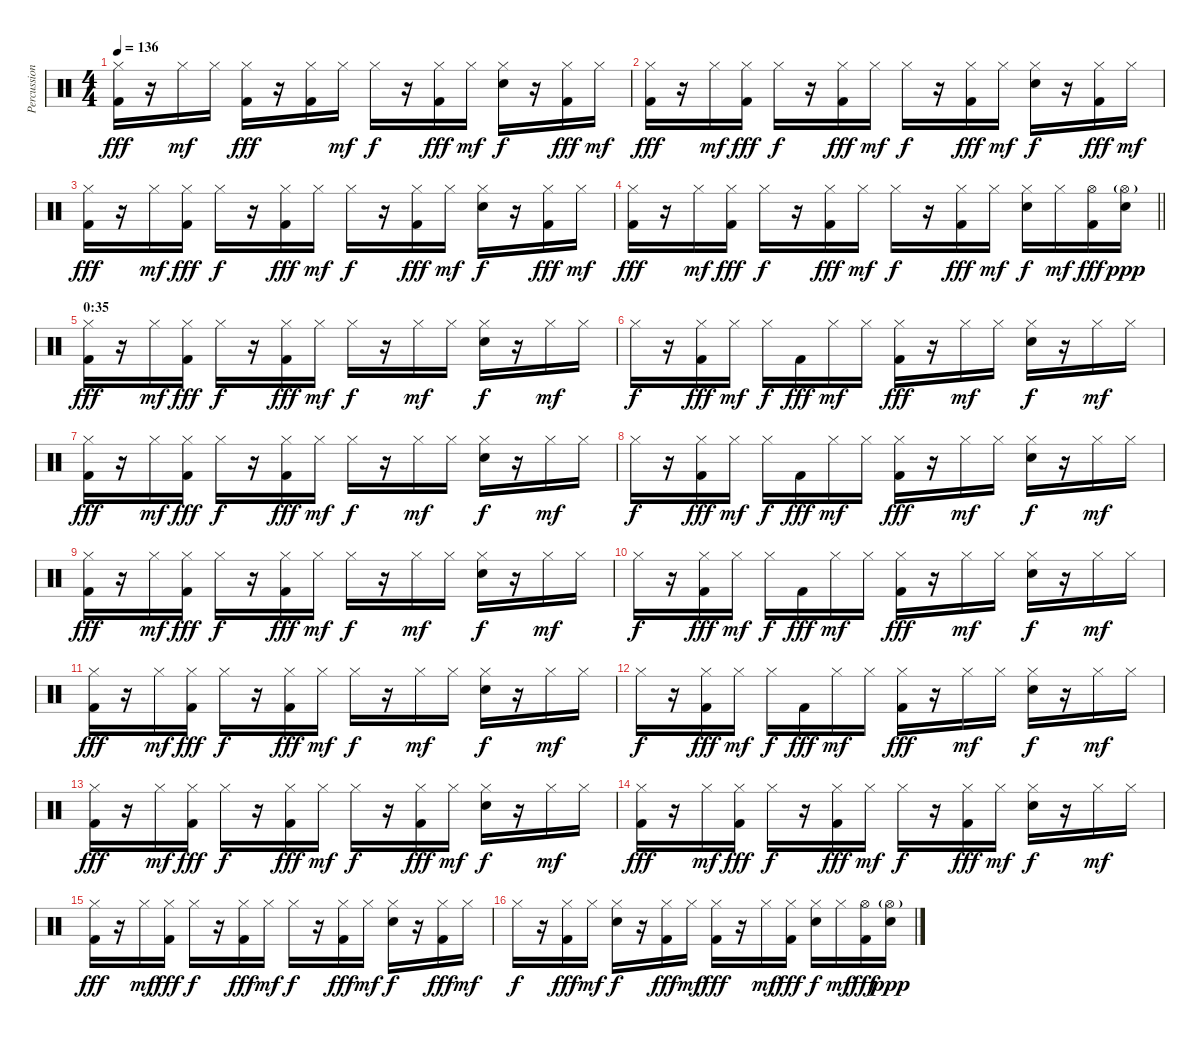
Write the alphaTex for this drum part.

\track ("Percussion" "Percussion") {instrument percussion}
\staff {score}
\articulation defaults
\ts (4 4)
\tempo 136
\clef neutral
\ks c
("Hi-Hat (closed)" "Kick (hit) 2").16{dy fff} r.16 "Hi-Hat (closed)".16{dy mf} "Hi-Hat (closed)".16 ("Hi-Hat (closed)" "Kick (hit) 2").16{dy fff} r.16 ("Hi-Hat (closed)" "Kick (hit) 2").16 "Hi-Hat (closed)".16{dy mf} "Hi-Hat (closed)".16{dy f} r.16 ("Hi-Hat (closed)" "Kick (hit) 2").16{dy fff} "Hi-Hat (closed)".16{dy mf} ("Hi-Hat (closed)" "Electric Snare (hit)").16{dy f} r.16 ("Hi-Hat (closed)" "Kick (hit) 2").16{dy fff} "Hi-Hat (closed)".16{dy mf} |
("Hi-Hat (closed)" "Kick (hit) 2").16{dy fff} r.16 "Hi-Hat (closed)".16{dy mf} ("Hi-Hat (closed)" "Kick (hit) 2").16{dy fff} "Hi-Hat (closed)".16{dy f} r.16 ("Hi-Hat (closed)" "Kick (hit) 2").16{dy fff} "Hi-Hat (closed)".16{dy mf} "Hi-Hat (closed)".16{dy f} r.16 ("Hi-Hat (closed)" "Kick (hit) 2").16{dy fff} "Hi-Hat (closed)".16{dy mf} ("Hi-Hat (closed)" "Electric Snare (hit)").16{dy f} r.16 ("Hi-Hat (closed)" "Kick (hit) 2").16{dy fff} "Hi-Hat (closed)".16{dy mf} |
("Hi-Hat (closed)" "Kick (hit) 2").16{dy fff} r.16 "Hi-Hat (closed)".16{dy mf} ("Hi-Hat (closed)" "Kick (hit) 2").16{dy fff} "Hi-Hat (closed)".16{dy f} r.16 ("Hi-Hat (closed)" "Kick (hit) 2").16{dy fff} "Hi-Hat (closed)".16{dy mf} "Hi-Hat (closed)".16{dy f} r.16 ("Hi-Hat (closed)" "Kick (hit) 2").16{dy fff} "Hi-Hat (closed)".16{dy mf} ("Hi-Hat (closed)" "Electric Snare (hit)").16{dy f} r.16 ("Hi-Hat (closed)" "Kick (hit) 2").16{dy fff} "Hi-Hat (closed)".16{dy mf} |
\barLineRight lightlight
("Hi-Hat (closed)" "Kick (hit) 2").16{dy fff} r.16 "Hi-Hat (closed)".16{dy mf} ("Hi-Hat (closed)" "Kick (hit) 2").16{dy fff} "Hi-Hat (closed)".16{dy f} r.16 ("Hi-Hat (closed)" "Kick (hit) 2").16{dy fff} "Hi-Hat (closed)".16{dy mf} "Hi-Hat (closed)".16{dy f} r.16 ("Hi-Hat (closed)" "Kick (hit) 2").16{dy fff} "Hi-Hat (closed)".16{dy mf} ("Hi-Hat (closed)" "Electric Snare (hit)").16{dy f} "Hi-Hat (closed)".16{dy mf} ("Hi-Hat (open)" "Kick (hit) 2").16{dy fff} ("Hi-Hat (open)"{g} "Electric Snare (hit)").16{dy ppp} |
\section ("" "0:35")
("Hi-Hat (closed)" "Kick (hit) 2").16{dy fff} r.16 "Hi-Hat (closed)".16{dy mf} ("Hi-Hat (closed)" "Kick (hit) 2").16{dy fff} "Hi-Hat (closed)".16{dy f} r.16 ("Hi-Hat (closed)" "Kick (hit) 2").16{dy fff} "Hi-Hat (closed)".16{dy mf} "Hi-Hat (closed)".16{dy f} r.16 "Hi-Hat (closed)".16{dy mf} "Hi-Hat (closed)".16 ("Hi-Hat (closed)" "Electric Snare (hit)").16{dy f} r.16 "Hi-Hat (closed)".16{dy mf} "Hi-Hat (closed)".16 |
"Hi-Hat (closed)".16{dy f} r.16 ("Hi-Hat (closed)" "Kick (hit) 2").16{dy fff} "Hi-Hat (closed)".16{dy mf} "Hi-Hat (closed)".16{dy f} "Kick (hit) 2".16{dy fff} "Hi-Hat (closed)".16{dy mf} "Hi-Hat (closed)".16 ("Hi-Hat (closed)" "Kick (hit) 2").16{dy fff} r.16 "Hi-Hat (closed)".16{dy mf} "Hi-Hat (closed)".16 ("Hi-Hat (closed)" "Electric Snare (hit)").16{dy f} r.16 "Hi-Hat (closed)".16{dy mf} "Hi-Hat (closed)".16 |
("Hi-Hat (closed)" "Kick (hit) 2").16{dy fff} r.16 "Hi-Hat (closed)".16{dy mf} ("Hi-Hat (closed)" "Kick (hit) 2").16{dy fff} "Hi-Hat (closed)".16{dy f} r.16 ("Hi-Hat (closed)" "Kick (hit) 2").16{dy fff} "Hi-Hat (closed)".16{dy mf} "Hi-Hat (closed)".16{dy f} r.16 "Hi-Hat (closed)".16{dy mf} "Hi-Hat (closed)".16 ("Hi-Hat (closed)" "Electric Snare (hit)").16{dy f} r.16 "Hi-Hat (closed)".16{dy mf} "Hi-Hat (closed)".16 |
"Hi-Hat (closed)".16{dy f} r.16 ("Hi-Hat (closed)" "Kick (hit) 2").16{dy fff} "Hi-Hat (closed)".16{dy mf} "Hi-Hat (closed)".16{dy f} "Kick (hit) 2".16{dy fff} "Hi-Hat (closed)".16{dy mf} "Hi-Hat (closed)".16 ("Hi-Hat (closed)" "Kick (hit) 2").16{dy fff} r.16 "Hi-Hat (closed)".16{dy mf} "Hi-Hat (closed)".16 ("Hi-Hat (closed)" "Electric Snare (hit)").16{dy f} r.16 "Hi-Hat (closed)".16{dy mf} "Hi-Hat (closed)".16 |
("Hi-Hat (closed)" "Kick (hit) 2").16{dy fff} r.16 "Hi-Hat (closed)".16{dy mf} ("Hi-Hat (closed)" "Kick (hit) 2").16{dy fff} "Hi-Hat (closed)".16{dy f} r.16 ("Hi-Hat (closed)" "Kick (hit) 2").16{dy fff} "Hi-Hat (closed)".16{dy mf} "Hi-Hat (closed)".16{dy f} r.16 "Hi-Hat (closed)".16{dy mf} "Hi-Hat (closed)".16 ("Hi-Hat (closed)" "Electric Snare (hit)").16{dy f} r.16 "Hi-Hat (closed)".16{dy mf} "Hi-Hat (closed)".16 |
"Hi-Hat (closed)".16{dy f} r.16 ("Hi-Hat (closed)" "Kick (hit) 2").16{dy fff} "Hi-Hat (closed)".16{dy mf} "Hi-Hat (closed)".16{dy f} "Kick (hit) 2".16{dy fff} "Hi-Hat (closed)".16{dy mf} "Hi-Hat (closed)".16 ("Hi-Hat (closed)" "Kick (hit) 2").16{dy fff} r.16 "Hi-Hat (closed)".16{dy mf} "Hi-Hat (closed)".16 ("Hi-Hat (closed)" "Electric Snare (hit)").16{dy f} r.16 "Hi-Hat (closed)".16{dy mf} "Hi-Hat (closed)".16 |
("Hi-Hat (closed)" "Kick (hit) 2").16{dy fff} r.16 "Hi-Hat (closed)".16{dy mf} ("Hi-Hat (closed)" "Kick (hit) 2").16{dy fff} "Hi-Hat (closed)".16{dy f} r.16 ("Hi-Hat (closed)" "Kick (hit) 2").16{dy fff} "Hi-Hat (closed)".16{dy mf} "Hi-Hat (closed)".16{dy f} r.16 "Hi-Hat (closed)".16{dy mf} "Hi-Hat (closed)".16 ("Hi-Hat (closed)" "Electric Snare (hit)").16{dy f} r.16 "Hi-Hat (closed)".16{dy mf} "Hi-Hat (closed)".16 |
"Hi-Hat (closed)".16{dy f} r.16 ("Hi-Hat (closed)" "Kick (hit) 2").16{dy fff} "Hi-Hat (closed)".16{dy mf} "Hi-Hat (closed)".16{dy f} "Kick (hit) 2".16{dy fff} "Hi-Hat (closed)".16{dy mf} "Hi-Hat (closed)".16 ("Hi-Hat (closed)" "Kick (hit) 2").16{dy fff} r.16 "Hi-Hat (closed)".16{dy mf} "Hi-Hat (closed)".16 ("Hi-Hat (closed)" "Electric Snare (hit)").16{dy f} r.16 "Hi-Hat (closed)".16{dy mf} "Hi-Hat (closed)".16 |
("Hi-Hat (closed)" "Kick (hit) 2").16{dy fff} r.16 "Hi-Hat (closed)".16{dy mf} ("Hi-Hat (closed)" "Kick (hit) 2").16{dy fff} "Hi-Hat (closed)".16{dy f} r.16 ("Hi-Hat (closed)" "Kick (hit) 2").16{dy fff} "Hi-Hat (closed)".16{dy mf} "Hi-Hat (closed)".16{dy f} r.16 ("Hi-Hat (closed)" "Kick (hit) 2").16{dy fff} "Hi-Hat (closed)".16{dy mf} ("Hi-Hat (closed)" "Electric Snare (hit)").16{dy f} r.16 "Hi-Hat (closed)".16{dy mf} "Hi-Hat (closed)".16 |
("Hi-Hat (closed)" "Kick (hit) 2").16{dy fff} r.16 "Hi-Hat (closed)".16{dy mf} ("Hi-Hat (closed)" "Kick (hit) 2").16{dy fff} "Hi-Hat (closed)".16{dy f} r.16 ("Hi-Hat (closed)" "Kick (hit) 2").16{dy fff} "Hi-Hat (closed)".16{dy mf} "Hi-Hat (closed)".16{dy f} r.16 ("Hi-Hat (closed)" "Kick (hit) 2").16{dy fff} "Hi-Hat (closed)".16{dy mf} ("Hi-Hat (closed)" "Electric Snare (hit)").16{dy f} r.16 "Hi-Hat (closed)".16{dy mf} "Hi-Hat (closed)".16 |
("Hi-Hat (closed)" "Kick (hit) 2").16{dy fff} r.16 "Hi-Hat (closed)".16{dy mf} ("Hi-Hat (closed)" "Kick (hit) 2").16{dy fff} "Hi-Hat (closed)".16{dy f} r.16 ("Hi-Hat (closed)" "Kick (hit) 2").16{dy fff} "Hi-Hat (closed)".16{dy mf} "Hi-Hat (closed)".16{dy f} r.16 ("Hi-Hat (closed)" "Kick (hit) 2").16{dy fff} "Hi-Hat (closed)".16{dy mf} ("Hi-Hat (closed)" "Electric Snare (hit)").16{dy f} r.16 ("Hi-Hat (closed)" "Kick (hit) 2").16{dy fff} "Hi-Hat (closed)".16{dy mf} |
"Hi-Hat (closed)".16{dy f} r.16 ("Hi-Hat (closed)" "Kick (hit) 2").16{dy fff} "Hi-Hat (closed)".16{dy mf} ("Hi-Hat (closed)" "Electric Snare (hit)").16{dy f} r.16 ("Hi-Hat (closed)" "Kick (hit) 2").16{dy fff} "Hi-Hat (closed)".16{dy mf} ("Hi-Hat (closed)" "Kick (hit) 2").16{dy fff} r.16 "Hi-Hat (closed)".16{dy mf} ("Hi-Hat (closed)" "Kick (hit) 2").16{dy fff} ("Hi-Hat (closed)" "Electric Snare (hit)").16{dy f} "Hi-Hat (closed)".16{dy mf} ("Hi-Hat (open)" "Kick (hit) 2").16{dy fff} ("Hi-Hat (open)"{g} "Electric Snare (hit)").16{dy ppp}
